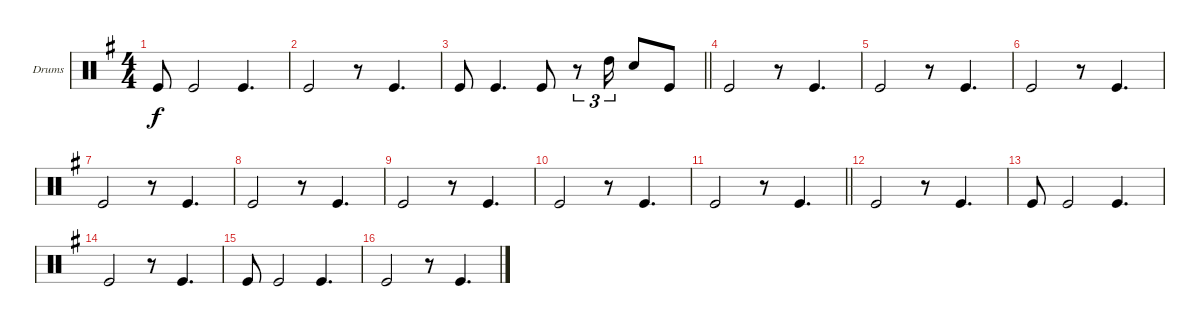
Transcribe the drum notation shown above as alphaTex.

\defaultSystemsLayout 4
\bracketExtendMode groupsimilarinstruments
\firstSystemTrackNameOrientation horizontal
\otherSystemsTrackNameOrientation horizontal
\track ("Drums" "Drums") {instrument percussion}
\staff {score}
\articulation defaults
\ts (4 4)
\tempo (81.0588 hide)
\clef neutral
\ks eminor "Kick (hit)".8{dy f} "Kick (hit)".2 "Kick (hit)".4{d}
|
"Kick (hit)".2 r.8 "Kick (hit)".4{d} |
\barLineRight lightlight "Kick (hit)".8 "Kick (hit)".4{d} "Kick (hit)".8
r.8{tu (3 2)} "High Tom (hit)".16{tu (3 2)} "Snare (hit) 2".8 "Kick (hit)".8 |
"Kick (hit)".2 r.8 "Kick (hit)".4{d} |
"Kick (hit)".2 r.8 "Kick (hit)".4{d} |
"Kick (hit)".2 r.8 "Kick (hit)".4{d} |
"Kick (hit)".2 r.8 "Kick (hit)".4{d} |
"Kick (hit)".2 r.8 "Kick (hit)".4{d} |
"Kick (hit)".2 r.8 "Kick (hit)".4{d} |
"Kick (hit)".2 r.8 "Kick (hit)".4{d} |
\barLineRight lightlight "Kick (hit)".2
r.8 "Kick (hit)".4{d} |
"Kick (hit)".2 r.8 "Kick (hit)".4{d} |
"Kick (hit)".8 "Kick (hit)".2 "Kick (hit)".4{d} |
"Kick (hit)".2 r.8 "Kick (hit)".4{d} |
"Kick (hit)".8 "Kick (hit)".2 "Kick (hit)".4{d} |
"Kick (hit)".2 r.8 "Kick (hit)".4{d}
